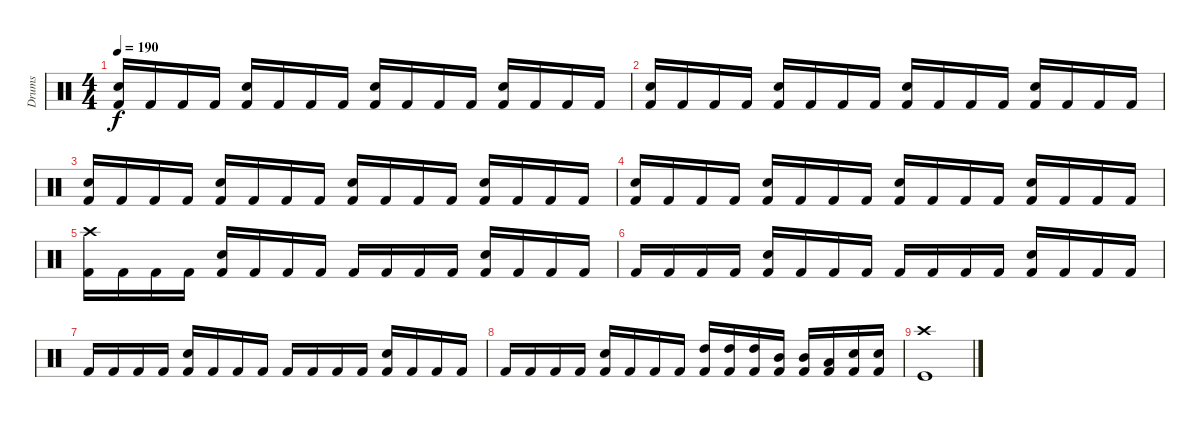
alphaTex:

\track ("Drums" "Drums") {instrument percussion}
\staff {score}
\articulation defaults
\ts (4 4)
\tempo 190
\clef neutral
\ks c
("Snare (hit) 2" "Kick (hit) 2").16{dy f} "Kick (hit) 2".16 "Kick (hit) 2".16 "Kick (hit) 2".16 ("Snare (hit) 2" "Kick (hit) 2").16 "Kick (hit) 2".16 "Kick (hit) 2".16 "Kick (hit) 2".16 ("Snare (hit) 2" "Kick (hit) 2").16 "Kick (hit) 2".16 "Kick (hit) 2".16 "Kick (hit) 2".16 ("Snare (hit) 2" "Kick (hit) 2").16 "Kick (hit) 2".16 "Kick (hit) 2".16 "Kick (hit) 2".16 |
("Snare (hit) 2" "Kick (hit) 2").16 "Kick (hit) 2".16 "Kick (hit) 2".16 "Kick (hit) 2".16 ("Snare (hit) 2" "Kick (hit) 2").16 "Kick (hit) 2".16 "Kick (hit) 2".16 "Kick (hit) 2".16 ("Snare (hit) 2" "Kick (hit) 2").16 "Kick (hit) 2".16 "Kick (hit) 2".16 "Kick (hit) 2".16 ("Snare (hit) 2" "Kick (hit) 2").16 "Kick (hit) 2".16 "Kick (hit) 2".16 "Kick (hit) 2".16 |
("Snare (hit) 2" "Kick (hit) 2").16 "Kick (hit) 2".16 "Kick (hit) 2".16 "Kick (hit) 2".16 ("Snare (hit) 2" "Kick (hit) 2").16 "Kick (hit) 2".16 "Kick (hit) 2".16 "Kick (hit) 2".16 ("Snare (hit) 2" "Kick (hit) 2").16 "Kick (hit) 2".16 "Kick (hit) 2".16 "Kick (hit) 2".16 ("Snare (hit) 2" "Kick (hit) 2").16 "Kick (hit) 2".16 "Kick (hit) 2".16 "Kick (hit) 2".16 |
("Snare (hit) 2" "Kick (hit) 2").16 "Kick (hit) 2".16 "Kick (hit) 2".16 "Kick (hit) 2".16 ("Snare (hit) 2" "Kick (hit) 2").16 "Kick (hit) 2".16 "Kick (hit) 2".16 "Kick (hit) 2".16 ("Snare (hit) 2" "Kick (hit) 2").16 "Kick (hit) 2".16 "Kick (hit) 2".16 "Kick (hit) 2".16 ("Snare (hit) 2" "Kick (hit) 2").16 "Kick (hit) 2".16 "Kick (hit) 2".16 "Kick (hit) 2".16 |
("Crash high (hit)" "Kick (hit) 2").16 "Kick (hit) 2".16 "Kick (hit) 2".16 "Kick (hit) 2".16 ("Snare (hit) 2" "Kick (hit) 2").16 "Kick (hit) 2".16 "Kick (hit) 2".16 "Kick (hit) 2".16 "Kick (hit) 2".16 "Kick (hit) 2".16 "Kick (hit) 2".16 "Kick (hit) 2".16 ("Snare (hit) 2" "Kick (hit) 2").16 "Kick (hit) 2".16 "Kick (hit) 2".16 "Kick (hit) 2".16 |
"Kick (hit) 2".16 "Kick (hit) 2".16 "Kick (hit) 2".16 "Kick (hit) 2".16 ("Snare (hit) 2" "Kick (hit) 2").16 "Kick (hit) 2".16 "Kick (hit) 2".16 "Kick (hit) 2".16 "Kick (hit) 2".16 "Kick (hit) 2".16 "Kick (hit) 2".16 "Kick (hit) 2".16 ("Snare (hit) 2" "Kick (hit) 2").16 "Kick (hit) 2".16 "Kick (hit) 2".16 "Kick (hit) 2".16 |
"Kick (hit) 2".16 "Kick (hit) 2".16 "Kick (hit) 2".16 "Kick (hit) 2".16 ("Snare (hit) 2" "Kick (hit) 2").16 "Kick (hit) 2".16 "Kick (hit) 2".16 "Kick (hit) 2".16 "Kick (hit) 2".16 "Kick (hit) 2".16 "Kick (hit) 2".16 "Kick (hit) 2".16 ("Snare (hit) 2" "Kick (hit) 2").16 "Kick (hit) 2".16 "Kick (hit) 2".16 "Kick (hit) 2".16 |
"Kick (hit) 2".16 "Kick (hit) 2".16 "Kick (hit) 2".16 "Kick (hit) 2".16 ("Snare (hit) 2" "Kick (hit) 2").16 "Kick (hit) 2".16 "Kick (hit) 2".16 "Kick (hit) 2".16 ("High Tom (hit)" "Kick (hit) 2").16 ("High Tom (hit)" "Kick (hit) 2").16 ("High Tom (hit)" "Kick (hit) 2").16 ("Mid Tom (hit)" "Kick (hit) 2").16 ("Mid Tom (hit)" "Kick (hit) 2").16 ("Low Tom (hit)" "Kick (hit) 2").16 ("Snare (hit) 2" "Kick (hit) 2").16 ("Snare (hit) 2" "Kick (hit) 2").16 |
("Crash high (hit)" "Kick (hit)").1
